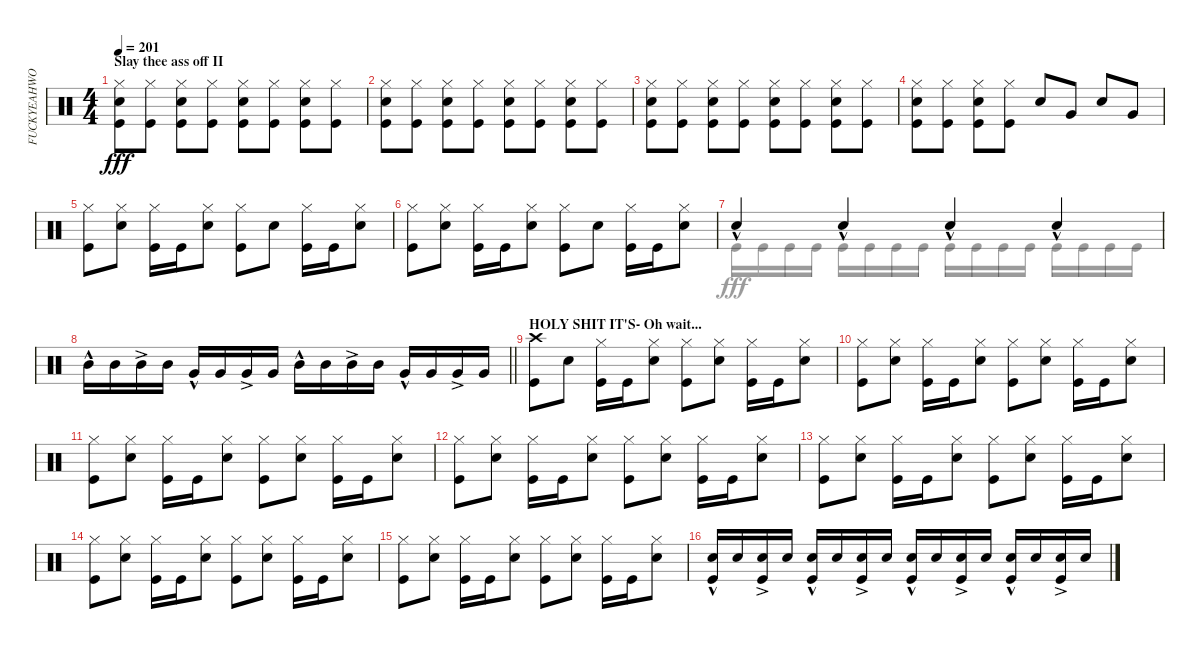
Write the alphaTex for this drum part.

\track ("FUCKYEAHWOOTDAVEMACKINTOSH(Percussion)" "FUCKYEAHWO") {instrument percussion}
\staff {score}
\articulation defaults
\voice
\ts (4 4)
\section ("" "Slay thee ass off II")
\tempo 201
\clef neutral
\ks c
("Kick (hit)" "Snare (hit) 2" "Hi-Hat (closed)").8{dy fff} ("Kick (hit)" "Hi-Hat (closed)").8 ("Kick (hit)" "Snare (hit) 2" "Hi-Hat (closed)").8 ("Hi-Hat (closed)" "Kick (hit)").8 ("Kick (hit)" "Snare (hit) 2" "Hi-Hat (closed)").8 ("Hi-Hat (closed)" "Kick (hit)").8 ("Kick (hit)" "Snare (hit) 2" "Hi-Hat (closed)").8 ("Kick (hit)" "Hi-Hat (closed)").8 |
("Kick (hit)" "Snare (hit) 2" "Hi-Hat (closed)").8 ("Kick (hit)" "Hi-Hat (closed)").8 ("Kick (hit)" "Snare (hit) 2" "Hi-Hat (closed)").8 ("Hi-Hat (closed)" "Kick (hit)").8 ("Kick (hit)" "Snare (hit) 2" "Hi-Hat (closed)").8 ("Hi-Hat (closed)" "Kick (hit)").8 ("Kick (hit)" "Snare (hit) 2" "Hi-Hat (closed)").8 ("Kick (hit)" "Hi-Hat (closed)").8 |
("Kick (hit)" "Snare (hit) 2" "Hi-Hat (closed)").8 ("Kick (hit)" "Hi-Hat (closed)").8 ("Kick (hit)" "Snare (hit) 2" "Hi-Hat (closed)").8 ("Hi-Hat (closed)" "Kick (hit)").8 ("Kick (hit)" "Snare (hit) 2" "Hi-Hat (closed)").8 ("Hi-Hat (closed)" "Kick (hit)").8 ("Kick (hit)" "Snare (hit) 2" "Hi-Hat (closed)").8 ("Kick (hit)" "Hi-Hat (closed)").8 |
("Kick (hit)" "Snare (hit) 2" "Hi-Hat (closed)").8 ("Kick (hit)" "Hi-Hat (closed)").8 ("Kick (hit)" "Snare (hit) 2" "Hi-Hat (closed)").8 ("Hi-Hat (closed)" "Kick (hit)").8 "Snare (hit) 2".8 "Very Low Tom (hit)".8 "Snare (hit) 2".8 "Very Low Tom (hit)".8 |
("Kick (hit)" "Hi-Hat (closed)").8 ("Snare (hit) 2" "Hi-Hat (closed)").8 ("Kick (hit)" "Hi-Hat (closed)").16 "Kick (hit)".16 ("Snare (hit) 2" "Hi-Hat (closed)").8 ("Kick (hit)" "Hi-Hat (closed)").8 "Snare (hit) 2".8 ("Kick (hit)" "Hi-Hat (closed)").16 "Kick (hit)".16 ("Snare (hit) 2" "Hi-Hat (closed)").8 |
("Kick (hit)" "Hi-Hat (closed)").8 ("Snare (hit) 2" "Hi-Hat (closed)").8 ("Kick (hit)" "Hi-Hat (closed)").16 "Kick (hit)".16 ("Snare (hit) 2" "Hi-Hat (closed)").8 ("Kick (hit)" "Hi-Hat (closed)").8 "Snare (hit) 2".8 ("Kick (hit)" "Hi-Hat (closed)").16 "Kick (hit)".16 ("Snare (hit) 2" "Hi-Hat (closed)").8 |
"Snare (hit) 2"{hac}.4 "Snare (hit) 2"{hac}.4 "Snare (hit) 2"{hac}.4 "Snare (hit) 2"{hac}.4 |
\barLineRight lightlight "Mid Tom (hit)"{hac}.16 "Mid Tom (hit)".16 "Mid Tom (hit)"{ac}.16 "Mid Tom (hit)".16 "Very Low Tom (hit)"{hac}.16 "Very Low Tom (hit)".16 "Very Low Tom (hit)"{ac}.16 "Very Low Tom (hit)".16 "Mid Tom (hit)"{hac}.16 "Mid Tom (hit)".16 "Mid Tom (hit)"{ac}.16 "Mid Tom (hit)".16 "Very Low Tom (hit)"{hac}.16 "Very Low Tom (hit)".16 "Very Low Tom (hit)"{ac}.16 "Very Low Tom (hit)".16
|
\section ("" "HOLY SHIT IT'S- Oh wait...")
("Kick (hit)" "Crash high (hit)").8 "Snare (hit) 2".8 ("Kick (hit)" "Hi-Hat (closed)").16 "Kick (hit)".16 ("Snare (hit) 2" "Hi-Hat (closed)").8 ("Kick (hit)" "Hi-Hat (closed)").8 ("Snare (hit) 2" "Hi-Hat (closed)").8 ("Kick (hit)" "Hi-Hat (closed)").16 "Kick (hit)".16 ("Snare (hit) 2" "Hi-Hat (closed)").8 |
("Kick (hit)" "Hi-Hat (closed)").8 ("Snare (hit) 2" "Hi-Hat (closed)").8 ("Kick (hit)" "Hi-Hat (closed)").16 "Kick (hit)".16 ("Snare (hit) 2" "Hi-Hat (closed)").8 ("Kick (hit)" "Hi-Hat (closed)").8 ("Snare (hit) 2" "Hi-Hat (closed)").8 ("Kick (hit)" "Hi-Hat (closed)").16 "Kick (hit)".16 ("Snare (hit) 2" "Hi-Hat (closed)").8 |
("Kick (hit)" "Hi-Hat (closed)").8 ("Snare (hit) 2" "Hi-Hat (closed)").8 ("Kick (hit)" "Hi-Hat (closed)").16 "Kick (hit)".16 ("Snare (hit) 2" "Hi-Hat (closed)").8 ("Kick (hit)" "Hi-Hat (closed)").8 ("Snare (hit) 2" "Hi-Hat (closed)").8 ("Kick (hit)" "Hi-Hat (closed)").16 "Kick (hit)".16 ("Snare (hit) 2" "Hi-Hat (closed)").8 |
("Kick (hit)" "Hi-Hat (closed)").8 ("Snare (hit) 2" "Hi-Hat (closed)").8 ("Kick (hit)" "Hi-Hat (closed)").16 "Kick (hit)".16 ("Snare (hit) 2" "Hi-Hat (closed)").8 ("Kick (hit)" "Hi-Hat (closed)").8 ("Snare (hit) 2" "Hi-Hat (closed)").8 ("Kick (hit)" "Hi-Hat (closed)").16 "Kick (hit)".16 ("Snare (hit) 2" "Hi-Hat (closed)").8 |
("Kick (hit)" "Hi-Hat (closed)").8 ("Snare (hit) 2" "Hi-Hat (closed)").8 ("Kick (hit)" "Hi-Hat (closed)").16 "Kick (hit)".16 ("Snare (hit) 2" "Hi-Hat (closed)").8 ("Kick (hit)" "Hi-Hat (closed)").8 ("Snare (hit) 2" "Hi-Hat (closed)").8 ("Kick (hit)" "Hi-Hat (closed)").16 "Kick (hit)".16 ("Snare (hit) 2" "Hi-Hat (closed)").8 |
("Kick (hit)" "Hi-Hat (closed)").8 ("Snare (hit) 2" "Hi-Hat (closed)").8 ("Kick (hit)" "Hi-Hat (closed)").16 "Kick (hit)".16 ("Snare (hit) 2" "Hi-Hat (closed)").8 ("Kick (hit)" "Hi-Hat (closed)").8 ("Snare (hit) 2" "Hi-Hat (closed)").8 ("Kick (hit)" "Hi-Hat (closed)").16 "Kick (hit)".16 ("Snare (hit) 2" "Hi-Hat (closed)").8 |
("Kick (hit)" "Hi-Hat (closed)").8 ("Snare (hit) 2" "Hi-Hat (closed)").8 ("Kick (hit)" "Hi-Hat (closed)").16 "Kick (hit)".16 ("Snare (hit) 2" "Hi-Hat (closed)").8 ("Kick (hit)" "Hi-Hat (closed)").8 ("Snare (hit) 2" "Hi-Hat (closed)").8 ("Kick (hit)" "Hi-Hat (closed)").16 "Kick (hit)".16 ("Snare (hit) 2" "Hi-Hat (closed)").8 |
("Snare (hit) 2"{hac} "Kick (hit)").16 "Snare (hit) 2".16 ("Snare (hit) 2"{ac} "Kick (hit)").16 "Snare (hit) 2".16 ("Kick (hit)" "Snare (hit) 2"{hac}).16 "Snare (hit) 2".16 ("Kick (hit)" "Snare (hit) 2"{ac}).16 "Snare (hit) 2".16 ("Snare (hit) 2"{hac} "Kick (hit)").16 "Snare (hit) 2".16 ("Snare (hit) 2"{ac} "Kick (hit)").16 "Snare (hit) 2".16 ("Snare (hit) 2"{hac} "Kick (hit)").16 "Snare (hit) 2".16 ("Snare (hit) 2"{ac} "Kick (hit)").16 "Snare (hit) 2".16
\voice
\clef neutral
\ottava regular
\simile none
\ks c
|
|
|
|
|
|
"Kick (hit)".16 "Kick (hit)".16 "Kick (hit)".16 "Kick (hit)".16 "Kick (hit)".16 "Kick (hit)".16 "Kick (hit)".16 "Kick (hit)".16 "Kick (hit)".16 "Kick (hit)".16 "Kick (hit)".16 "Kick (hit)".16 "Kick (hit)".16 "Kick (hit)".16 "Kick (hit)".16 "Kick (hit)".16 |
\barLineRight lightlight
|
|
|
|
|
|
|
|
